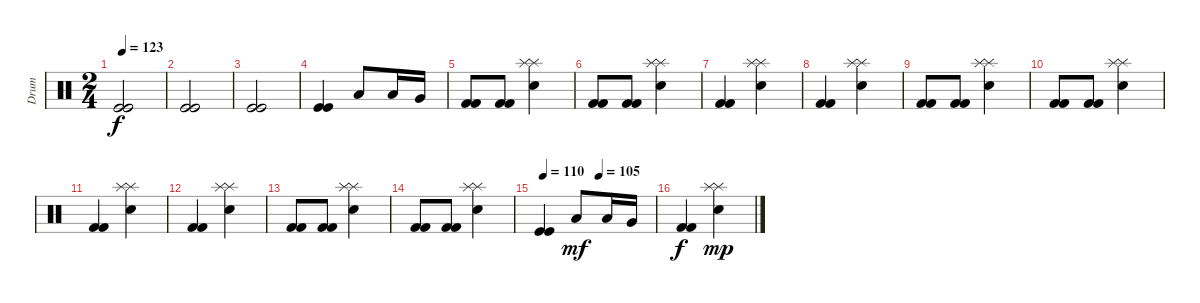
\track ("Drum" "Drum") {instrument percussion}
\staff {score}
\articulation defaults
\ts (2 4)
\tempo 123
\clef neutral
\ks c
("Kick (hit)" "Kick (hit)").2{dy f} |
("Kick (hit)" "Kick (hit)").2 |
("Kick (hit)" "Kick (hit)").2 |
("Kick (hit)" "Kick (hit)").4 "Low Tom (hit)".8 "Low Tom (hit)".16 "Very Low Tom (hit)".16 |
("Kick (hit) 2" "Kick (hit) 2").8 ("Kick (hit) 2" "Kick (hit) 2").8 ("Splash (hit)" "Splash (hit)" "Snare (hit) 2").4 |
("Kick (hit) 2" "Kick (hit) 2").8 ("Kick (hit) 2" "Kick (hit) 2").8 ("Splash (hit)" "Splash (hit)" "Snare (hit) 2").4 |
("Kick (hit) 2" "Kick (hit) 2").4 ("Splash (hit)" "Splash (hit)" "Snare (hit) 2").4 |
("Kick (hit) 2" "Kick (hit) 2").4 ("Splash (hit)" "Splash (hit)" "Snare (hit) 2").4 |
("Kick (hit) 2" "Kick (hit) 2").8 ("Kick (hit) 2" "Kick (hit) 2").8 ("Splash (hit)" "Splash (hit)" "Snare (hit) 2").4 |
("Kick (hit) 2" "Kick (hit) 2").8 ("Kick (hit) 2" "Kick (hit) 2").8 ("Splash (hit)" "Splash (hit)" "Snare (hit) 2").4 |
("Kick (hit) 2" "Kick (hit) 2").4 ("Splash (hit)" "Splash (hit)" "Snare (hit) 2").4 |
("Kick (hit) 2" "Kick (hit) 2").4 ("Splash (hit)" "Splash (hit)" "Snare (hit) 2").4 |
("Kick (hit) 2" "Kick (hit) 2").8 ("Kick (hit) 2" "Kick (hit) 2").8 ("Splash (hit)" "Splash (hit)" "Snare (hit) 2").4 |
("Kick (hit) 2" "Kick (hit) 2").8 ("Kick (hit) 2" "Kick (hit) 2").8 ("Splash (hit)" "Splash (hit)" "Snare (hit) 2").4 |
\tempo 110
\tempo (105 0.5)
("Kick (hit)" "Kick (hit)").4 "Low Tom (hit)".8{dy mf} "Low Tom (hit)".16 "Very Low Tom (hit)".16 |
("Kick (hit) 2" "Kick (hit) 2").4{dy f} ("Splash (hit)" "Splash (hit)" "Snare (hit) 2").4{dy mp}
